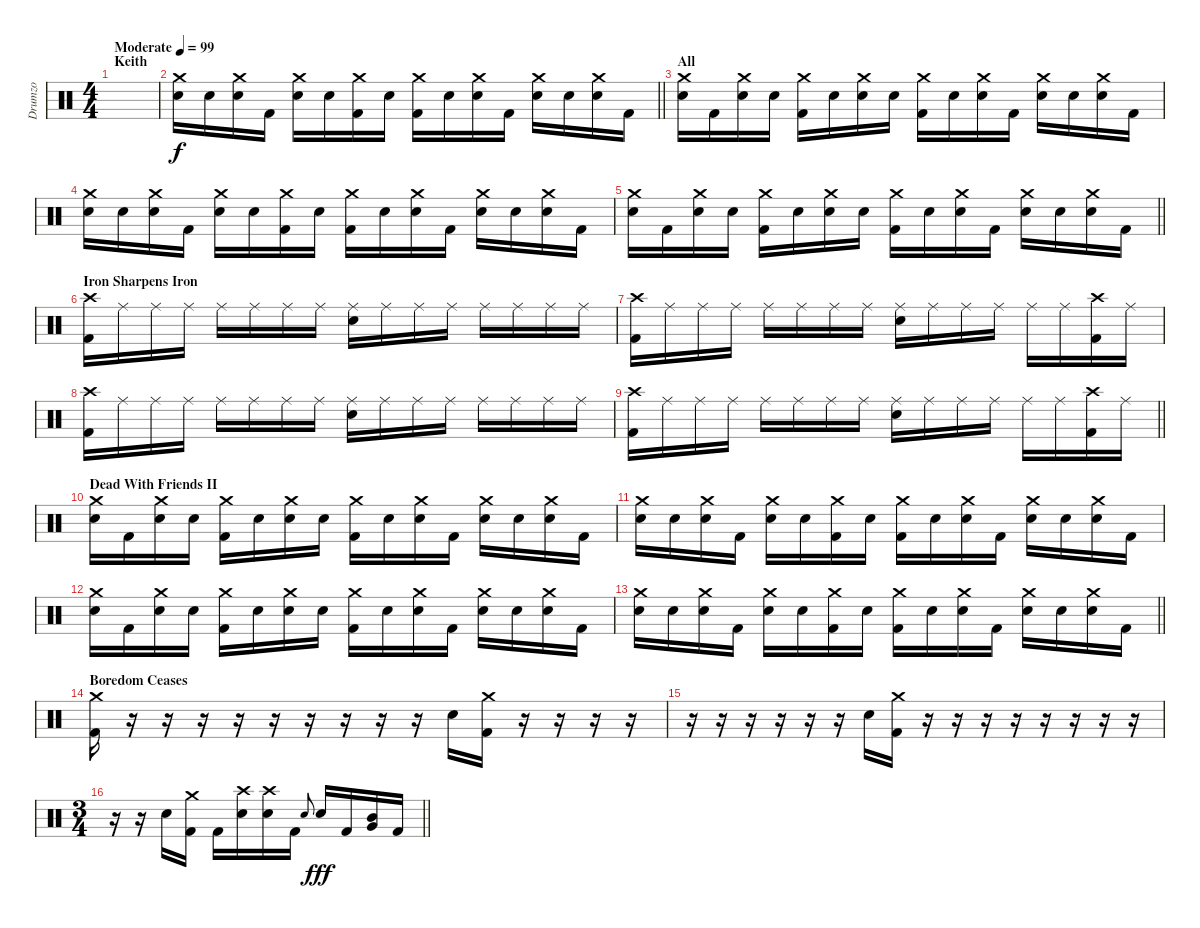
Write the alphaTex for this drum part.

\track ("Drumzo" "Drumzo") {instrument percussion}
\staff {score}
\articulation defaults
\ts (4 4)
\section ("" "Keith")
\tempo (99 "Moderate")
\clef neutral
\ks c
|
\barLineRight lightlight
("Crash medium (hit)" "Snare (hit) 2").16 "Snare (hit) 2".16 ("Crash medium (hit)" "Snare (hit) 2").16 "Kick (hit) 2".16 ("Crash medium (hit)" "Snare (hit) 2").16 "Snare (hit) 2".16 ("Crash medium (hit)" "Kick (hit) 2").16 "Snare (hit) 2".16 ("Crash medium (hit)" "Kick (hit) 2").16 "Snare (hit) 2".16 ("Crash medium (hit)" "Snare (hit) 2").16 "Kick (hit) 2".16 ("Crash medium (hit)" "Snare (hit) 2").16 "Snare (hit) 2".16 ("Crash medium (hit)" "Snare (hit) 2").16 "Kick (hit) 2".16 |
\section ("" "All")
("Crash medium (hit)" "Snare (hit) 2").16 "Kick (hit) 2".16 ("Crash medium (hit)" "Snare (hit) 2").16 "Snare (hit) 2".16 ("Crash medium (hit)" "Kick (hit) 2").16 "Snare (hit) 2".16 ("Crash medium (hit)" "Snare (hit) 2").16 "Snare (hit) 2".16 ("Crash medium (hit)" "Kick (hit) 2").16 "Snare (hit) 2".16 ("Crash medium (hit)" "Snare (hit) 2").16 "Kick (hit) 2".16 ("Crash medium (hit)" "Snare (hit) 2").16 "Snare (hit) 2".16 ("Crash medium (hit)" "Snare (hit) 2").16 "Kick (hit) 2".16 |
("Crash medium (hit)" "Snare (hit) 2").16 "Snare (hit) 2".16 ("Crash medium (hit)" "Snare (hit) 2").16 "Kick (hit) 2".16 ("Crash medium (hit)" "Snare (hit) 2").16 "Snare (hit) 2".16 ("Crash medium (hit)" "Kick (hit) 2").16 "Snare (hit) 2".16 ("Crash medium (hit)" "Kick (hit) 2").16 "Snare (hit) 2".16 ("Crash medium (hit)" "Snare (hit) 2").16 "Kick (hit) 2".16 ("Crash medium (hit)" "Snare (hit) 2").16 "Snare (hit) 2".16 ("Crash medium (hit)" "Snare (hit) 2").16 "Kick (hit) 2".16 |
\barLineRight lightlight
("Crash medium (hit)" "Snare (hit) 2").16 "Kick (hit) 2".16 ("Crash medium (hit)" "Snare (hit) 2").16 "Snare (hit) 2".16 ("Crash medium (hit)" "Kick (hit) 2").16 "Snare (hit) 2".16 ("Crash medium (hit)" "Snare (hit) 2").16 "Snare (hit) 2".16 ("Crash medium (hit)" "Kick (hit) 2").16 "Snare (hit) 2".16 ("Crash medium (hit)" "Snare (hit) 2").16 "Kick (hit) 2".16 ("Crash medium (hit)" "Snare (hit) 2").16 "Snare (hit) 2".16 ("Crash medium (hit)" "Snare (hit) 2").16 "Kick (hit) 2".16 |
\section ("" "Iron Sharpens Iron")
("Crash high (hit)" "Kick (hit) 2").16 "Ride (middle)".16 "Ride (middle)".16 "Ride (middle)".16 "Ride (middle)".16 "Ride (middle)".16 "Ride (middle)".16 "Ride (middle)".16 ("Ride (middle)" "Snare (hit) 2").16 "Ride (middle)".16 "Ride (middle)".16 "Ride (middle)".16 "Ride (middle)".16 "Ride (middle)".16 "Ride (middle)".16 "Ride (middle)".16 |
("Crash high (hit)" "Kick (hit) 2").16 "Ride (middle)".16 "Ride (middle)".16 "Ride (middle)".16 "Ride (middle)".16 "Ride (middle)".16 "Ride (middle)".16 "Ride (middle)".16 ("Ride (middle)" "Snare (hit) 2").16 "Ride (middle)".16 "Ride (middle)".16 "Ride (middle)".16 "Ride (middle)".16 "Ride (middle)".16 ("Crash high (hit)" "Kick (hit) 2").16 "Ride (middle)".16 |
("Crash high (hit)" "Kick (hit) 2").16 "Ride (middle)".16 "Ride (middle)".16 "Ride (middle)".16 "Ride (middle)".16 "Ride (middle)".16 "Ride (middle)".16 "Ride (middle)".16 ("Ride (middle)" "Snare (hit) 2").16 "Ride (middle)".16 "Ride (middle)".16 "Ride (middle)".16 "Ride (middle)".16 "Ride (middle)".16 "Ride (middle)".16 "Ride (middle)".16 |
\barLineRight lightlight
("Crash high (hit)" "Kick (hit) 2").16 "Ride (middle)".16 "Ride (middle)".16 "Ride (middle)".16 "Ride (middle)".16 "Ride (middle)".16 "Ride (middle)".16 "Ride (middle)".16 ("Ride (middle)" "Snare (hit) 2").16 "Ride (middle)".16 "Ride (middle)".16 "Ride (middle)".16 "Ride (middle)".16 "Ride (middle)".16 ("Crash high (hit)" "Kick (hit) 2").16 "Ride (middle)".16 |
\section ("" "Dead With Friends II")
("Crash medium (hit)" "Snare (hit) 2").16 "Kick (hit) 2".16 ("Crash medium (hit)" "Snare (hit) 2").16 "Snare (hit) 2".16 ("Crash medium (hit)" "Kick (hit) 2").16 "Snare (hit) 2".16 ("Crash medium (hit)" "Snare (hit) 2").16 "Snare (hit) 2".16 ("Crash medium (hit)" "Kick (hit) 2").16 "Snare (hit) 2".16 ("Crash medium (hit)" "Snare (hit) 2").16 "Kick (hit) 2".16 ("Crash medium (hit)" "Snare (hit) 2").16 "Snare (hit) 2".16 ("Crash medium (hit)" "Snare (hit) 2").16 "Kick (hit) 2".16 |
("Crash medium (hit)" "Snare (hit) 2").16 "Snare (hit) 2".16 ("Crash medium (hit)" "Snare (hit) 2").16 "Kick (hit) 2".16 ("Crash medium (hit)" "Snare (hit) 2").16 "Snare (hit) 2".16 ("Crash medium (hit)" "Kick (hit) 2").16 "Snare (hit) 2".16 ("Crash medium (hit)" "Kick (hit) 2").16 "Snare (hit) 2".16 ("Crash medium (hit)" "Snare (hit) 2").16 "Kick (hit) 2".16 ("Crash medium (hit)" "Snare (hit) 2").16 "Snare (hit) 2".16 ("Crash medium (hit)" "Snare (hit) 2").16 "Kick (hit) 2".16 |
("Crash medium (hit)" "Snare (hit) 2").16 "Kick (hit) 2".16 ("Crash medium (hit)" "Snare (hit) 2").16 "Snare (hit) 2".16 ("Crash medium (hit)" "Kick (hit) 2").16 "Snare (hit) 2".16 ("Crash medium (hit)" "Snare (hit) 2").16 "Snare (hit) 2".16 ("Crash medium (hit)" "Kick (hit) 2").16 "Snare (hit) 2".16 ("Crash medium (hit)" "Snare (hit) 2").16 "Kick (hit) 2".16 ("Crash medium (hit)" "Snare (hit) 2").16 "Snare (hit) 2".16 ("Crash medium (hit)" "Snare (hit) 2").16 "Kick (hit) 2".16 |
\barLineRight lightlight
("Crash medium (hit)" "Snare (hit) 2").16 "Snare (hit) 2".16 ("Crash medium (hit)" "Snare (hit) 2").16 "Kick (hit) 2".16 ("Crash medium (hit)" "Snare (hit) 2").16 "Snare (hit) 2".16 ("Crash medium (hit)" "Kick (hit) 2").16 "Snare (hit) 2".16 ("Crash medium (hit)" "Kick (hit) 2").16 "Snare (hit) 2".16 ("Crash medium (hit)" "Snare (hit) 2").16 "Kick (hit) 2".16 ("Crash medium (hit)" "Snare (hit) 2").16 "Snare (hit) 2".16 ("Crash medium (hit)" "Snare (hit) 2").16 "Kick (hit) 2".16 |
\section ("" "Boredom Ceases")
("Crash medium (hit)" "Kick (hit) 2").16 r.16 r.16 r.16 r.16 r.16 r.16 r.16 r.16 r.16 "Snare (hit) 2".16 ("Crash medium (hit)" "Kick (hit) 2").16 r.16 r.16 r.16 r.16 |
r.16 r.16 r.16 r.16 r.16 r.16 "Snare (hit) 2".16 ("Crash medium (hit)" "Kick (hit) 2").16 r.16 r.16 r.16 r.16 r.16 r.16 r.16 r.16 |
\ts (3 4)
\barLineRight lightlight
r.16 r.16 "Snare (hit) 2".16 ("Crash medium (hit)" "Kick (hit) 2").16 "Kick (hit) 2".16 ("Crash high (hit)" "Snare (hit) 2").16 ("Crash high (hit)" "Snare (hit) 2").16 "Kick (hit) 2".16 "Snare (hit) 2".8{gr onbeat dy f} "Snare (hit) 2".16{dy fff} "Kick (hit) 2".16 ("Mid Tom (hit)" "Very Low Tom (hit)").16 "Kick (hit) 2".16
